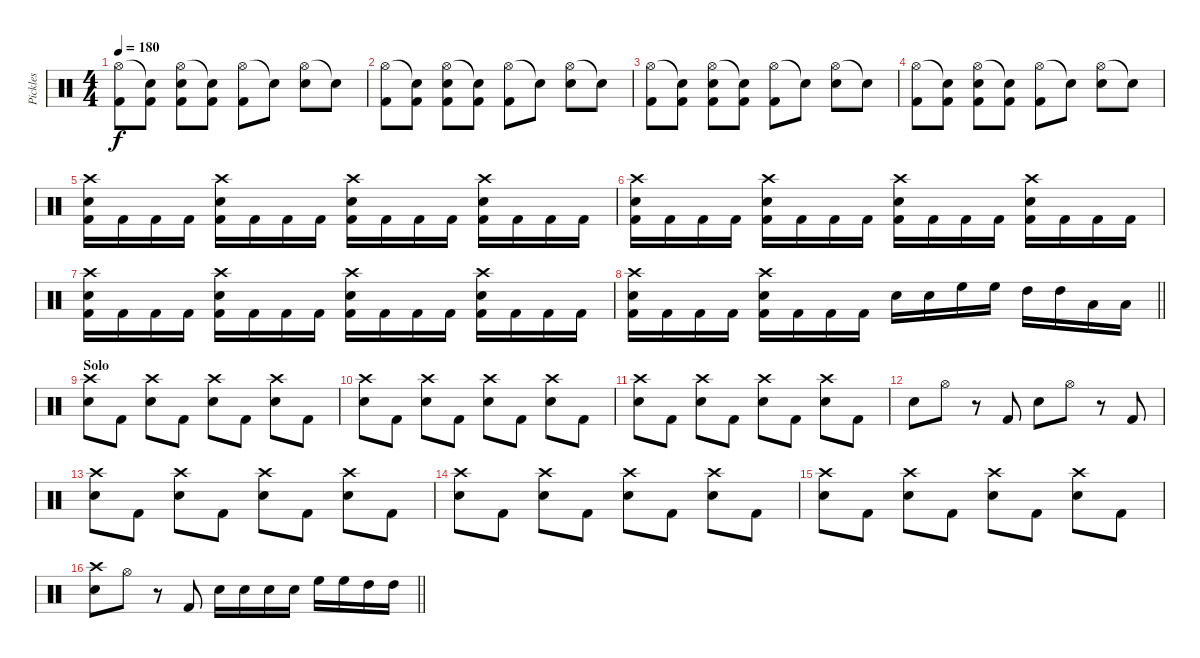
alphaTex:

\track ("Pickles" "Pickles") {instrument percussion}
\staff {score}
\articulation defaults
\ts (4 4)
\tempo 180
\clef neutral
\ks c
("Hi-Hat (open)" "Kick (hit) 2").8{dy f} ("Snare (hit)"{t} "Kick (hit) 2").8 ("Hi-Hat (open)" "Snare (hit) 2" "Kick (hit) 2").8 ("Snare (hit)"{t} "Kick (hit) 2").8 ("Hi-Hat (open)" "Kick (hit) 2").8 "Snare (hit)"{t}.8 ("Hi-Hat (open)" "Snare (hit) 2").8 "Snare (hit)"{t}.8 |
("Hi-Hat (open)" "Kick (hit) 2").8 ("Snare (hit)"{t} "Kick (hit) 2").8 ("Hi-Hat (open)" "Snare (hit) 2" "Kick (hit) 2").8 ("Snare (hit)"{t} "Kick (hit) 2").8 ("Hi-Hat (open)" "Kick (hit) 2").8 "Snare (hit)"{t}.8 ("Hi-Hat (open)" "Snare (hit) 2").8 "Snare (hit)"{t}.8 |
("Hi-Hat (open)" "Kick (hit) 2").8 ("Snare (hit)"{t} "Kick (hit) 2").8 ("Hi-Hat (open)" "Snare (hit) 2" "Kick (hit) 2").8 ("Snare (hit)"{t} "Kick (hit) 2").8 ("Hi-Hat (open)" "Kick (hit) 2").8 "Snare (hit)"{t}.8 ("Hi-Hat (open)" "Snare (hit) 2").8 "Snare (hit)"{t}.8 |
("Hi-Hat (open)" "Kick (hit) 2").8 ("Snare (hit)"{t} "Kick (hit) 2").8 ("Hi-Hat (open)" "Snare (hit) 2" "Kick (hit) 2").8 ("Snare (hit)"{t} "Kick (hit) 2").8 ("Hi-Hat (open)" "Kick (hit) 2").8 "Snare (hit)"{t}.8 ("Hi-Hat (open)" "Snare (hit) 2").8 "Snare (hit)"{t}.8 |
("Crash high (hit)" "Snare (hit) 2" "Kick (hit) 2").16 "Kick (hit) 2".16 "Kick (hit) 2".16 "Kick (hit) 2".16 ("Crash high (hit)" "Snare (hit) 2" "Kick (hit) 2").16 "Kick (hit) 2".16 "Kick (hit) 2".16 "Kick (hit) 2".16 ("Crash high (hit)" "Snare (hit) 2" "Kick (hit) 2").16 "Kick (hit) 2".16 "Kick (hit) 2".16 "Kick (hit) 2".16 ("Crash high (hit)" "Snare (hit) 2" "Kick (hit) 2").16 "Kick (hit) 2".16 "Kick (hit) 2".16 "Kick (hit) 2".16 |
("Crash high (hit)" "Snare (hit) 2" "Kick (hit) 2").16 "Kick (hit) 2".16 "Kick (hit) 2".16 "Kick (hit) 2".16 ("Crash high (hit)" "Snare (hit) 2" "Kick (hit) 2").16 "Kick (hit) 2".16 "Kick (hit) 2".16 "Kick (hit) 2".16 ("Crash high (hit)" "Snare (hit) 2" "Kick (hit) 2").16 "Kick (hit) 2".16 "Kick (hit) 2".16 "Kick (hit) 2".16 ("Crash high (hit)" "Snare (hit) 2" "Kick (hit) 2").16 "Kick (hit) 2".16 "Kick (hit) 2".16 "Kick (hit) 2".16 |
("Crash high (hit)" "Snare (hit) 2" "Kick (hit) 2").16 "Kick (hit) 2".16 "Kick (hit) 2".16 "Kick (hit) 2".16 ("Crash high (hit)" "Snare (hit) 2" "Kick (hit) 2").16 "Kick (hit) 2".16 "Kick (hit) 2".16 "Kick (hit) 2".16 ("Crash high (hit)" "Snare (hit) 2" "Kick (hit) 2").16 "Kick (hit) 2".16 "Kick (hit) 2".16 "Kick (hit) 2".16 ("Crash high (hit)" "Snare (hit) 2" "Kick (hit) 2").16 "Kick (hit) 2".16 "Kick (hit) 2".16 "Kick (hit) 2".16 |
\barLineRight lightlight
("Crash high (hit)" "Snare (hit) 2" "Kick (hit) 2").16 "Kick (hit) 2".16 "Kick (hit) 2".16 "Kick (hit) 2".16 ("Crash high (hit)" "Snare (hit) 2" "Kick (hit) 2").16 "Kick (hit) 2".16 "Kick (hit) 2".16 "Kick (hit) 2".16 "Snare (hit) 2".16 "Snare (hit) 2".16 "High Floor Tom (hit)".16 "High Floor Tom (hit)".16 "High Tom (hit)".16 "High Tom (hit)".16 "Low Tom (hit)".16 "Low Tom (hit)".16 |
\section ("" "Solo")
("Crash high (hit)" "Snare (hit) 2").8 "Kick (hit) 2".8 ("Crash high (hit)" "Snare (hit) 2").8 "Kick (hit) 2".8 ("Crash high (hit)" "Snare (hit) 2").8 "Kick (hit) 2".8 ("Crash high (hit)" "Snare (hit) 2").8 "Kick (hit) 2".8 |
("Crash high (hit)" "Snare (hit) 2").8 "Kick (hit) 2".8 ("Crash high (hit)" "Snare (hit) 2").8 "Kick (hit) 2".8 ("Crash high (hit)" "Snare (hit) 2").8 "Kick (hit) 2".8 ("Crash high (hit)" "Snare (hit) 2").8 "Kick (hit) 2".8 |
("Crash high (hit)" "Snare (hit) 2").8 "Kick (hit) 2".8 ("Crash high (hit)" "Snare (hit) 2").8 "Kick (hit) 2".8 ("Crash high (hit)" "Snare (hit) 2").8 "Kick (hit) 2".8 ("Crash high (hit)" "Snare (hit) 2").8 "Kick (hit) 2".8 |
"Snare (hit) 2".8 "Hi-Hat (open)".8 r.8{volume 0} "Kick (hit) 2".8{volume 16} "Snare (hit) 2".8 "Hi-Hat (open)".8 r.8{volume 0} "Kick (hit) 2".8{volume 16} |
("Crash high (hit)" "Snare (hit) 2").8 "Kick (hit) 2".8 ("Crash high (hit)" "Snare (hit) 2").8 "Kick (hit) 2".8 ("Crash high (hit)" "Snare (hit) 2").8 "Kick (hit) 2".8 ("Crash high (hit)" "Snare (hit) 2").8 "Kick (hit) 2".8 |
("Crash high (hit)" "Snare (hit) 2").8 "Kick (hit) 2".8 ("Crash high (hit)" "Snare (hit) 2").8 "Kick (hit) 2".8 ("Crash high (hit)" "Snare (hit) 2").8 "Kick (hit) 2".8 ("Crash high (hit)" "Snare (hit) 2").8 "Kick (hit) 2".8 |
("Crash high (hit)" "Snare (hit) 2").8 "Kick (hit) 2".8 ("Crash high (hit)" "Snare (hit) 2").8 "Kick (hit) 2".8 ("Crash high (hit)" "Snare (hit) 2").8 "Kick (hit) 2".8 ("Crash high (hit)" "Snare (hit) 2").8 "Kick (hit) 2".8 |
\barLineRight lightlight
("Crash high (hit)" "Snare (hit) 2").8 "Hi-Hat (open)".8 r.8{volume 0} "Kick (hit) 2".8{volume 16} "Snare (hit) 2".16 "Snare (hit) 2".16 "Snare (hit) 2".16 "Snare (hit) 2".16 "High Floor Tom (hit)".16 "High Floor Tom (hit)".16 "High Tom (hit)".16 "High Tom (hit)".16
